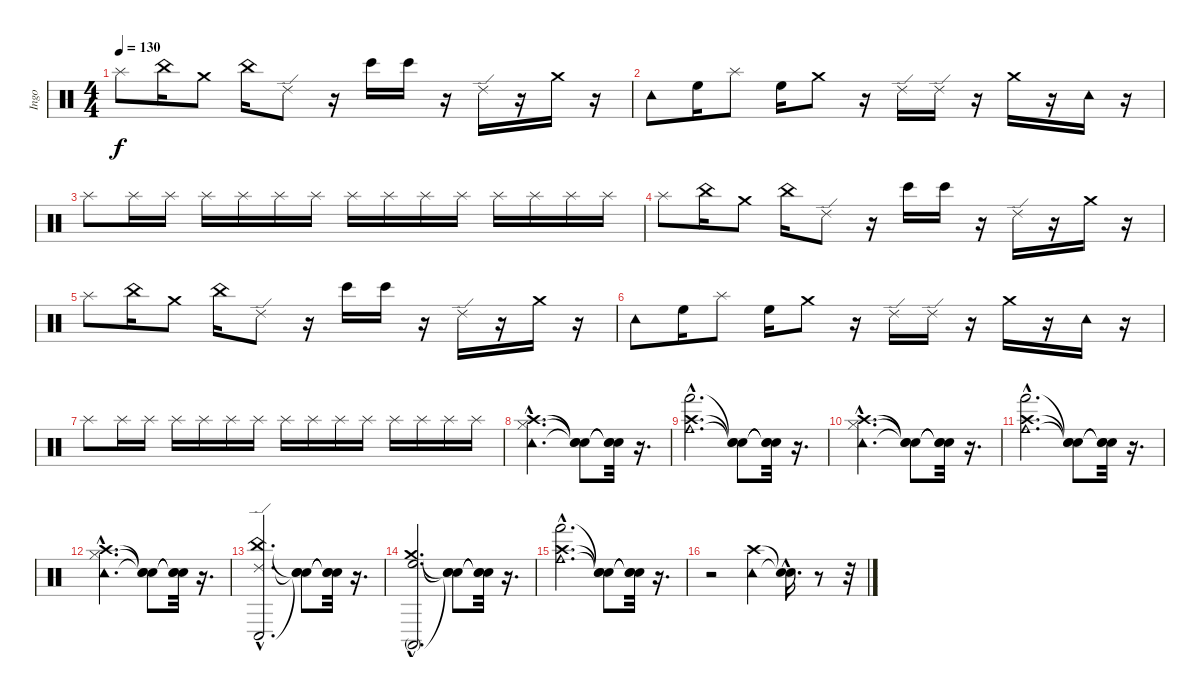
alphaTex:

\track ("Ingo" "Ingo") {instrument percussion}
\staff {score}
\articulation defaults
\ts (4 4)
\tempo 130
\clef neutral
\ks c "Splash (hit)".8{dy f} "China (hit)".16 "Crash medium (hit)".8 "China (hit)".16 "Ride (edge) 2".8
r.16 "Bongo High (hit)".16 "Bongo High (hit)".16 r.16 "Ride (edge) 2".16 r.16 "Crash medium (hit)".16 r.16 |
"Tambourine (hit)".8 "High Floor Tom (hit)".16 "Splash (hit)".8 "High Floor Tom (hit)".16 "Crash medium (hit)".8 r.16 "Ride (edge) 2".16 "Ride (edge) 2".16 r.16 "Crash medium (hit)".16 r.16 "Tambourine (hit)".16 r.16 |
"Splash (hit)".8 "Splash (hit)".16 "Splash (hit)".16 "Splash (hit)".16 "Splash (hit)".16 "Splash (hit)".16 "Splash (hit)".16 "Splash (hit)".16 "Splash (hit)".16 "Splash (hit)".16 "Splash (hit)".16 "Splash (hit)".16 "Splash (hit)".16 "Splash (hit)".16 "Splash (hit)".16 |
"Splash (hit)".8 "China (hit)".16 "Crash medium (hit)".8 "China (hit)".16 "Ride (edge) 2".8 r.16 "Bongo High (hit)".16 "Bongo High (hit)".16 r.16 "Ride (edge) 2".16 r.16 "Crash medium (hit)".16 r.16 |
"Splash (hit)".8 "China (hit)".16 "Crash medium (hit)".8 "China (hit)".16 "Ride (edge) 2".8 r.16 "Bongo High (hit)".16 "Bongo High (hit)".16 r.16 "Ride (edge) 2".16 r.16 "Crash medium (hit)".16 r.16 |
"Tambourine (hit)".8 "High Floor Tom (hit)".16 "Splash (hit)".8 "High Floor Tom (hit)".16 "Crash medium (hit)".8 r.16 "Ride (edge) 2".16 "Ride (edge) 2".16 r.16 "Crash medium (hit)".16 r.16 "Tambourine (hit)".16 r.16 |
"Splash (hit)".8 "Splash (hit)".16 "Splash (hit)".16 "Splash (hit)".16 "Splash (hit)".16 "Splash (hit)".16 "Splash (hit)".16 "Splash (hit)".16 "Splash (hit)".16 "Splash (hit)".16 "Splash (hit)".16 "Splash (hit)".16 "Splash (hit)".16 "Splash (hit)".16 "Splash (hit)".16 |
("Tambourine (hit)"{hac} "Hi-Hat (closed)"{hac} "Crash high (hit)"{hac}).2{d volume 12} ("Snare (hit)"{t} "Snare (hit)"{t} "Snare (hit)"{t}).8 ("Snare (hit)"{t} "Snare (hit)"{t} "Snare (hit)"{t}).32 r.16{d} |
("Hand (hit)"{hac} "Crash high (hit)"{hac} "Cowbell medium (hit)"{hac}).2{d} ("Snare (hit)"{t} "Snare (hit)"{t} "Snare (hit)"{t}).8 ("Snare (hit)"{t} "Snare (hit)"{t} "Snare (hit)"{t}).32 r.16{d} |
("Tambourine (hit)"{hac} "Hi-Hat (closed)"{hac} "Crash high (hit)"{hac}).2{d} ("Snare (hit)"{t} "Snare (hit)"{t} "Snare (hit)"{t}).8 ("Snare (hit)"{t} "Snare (hit)"{t} "Snare (hit)"{t}).32 r.16{d} |
("Hand (hit)"{hac} "Crash high (hit)"{hac} "Cowbell medium (hit)"{hac}).2{d} ("Snare (hit)"{t} "Snare (hit)"{t} "Snare (hit)"{t}).8 ("Snare (hit)"{t} "Snare (hit)"{t} "Snare (hit)"{t}).32 r.16{d} |
("Tambourine (hit)"{hac} "Hi-Hat (closed)"{hac} "Crash high (hit)"{hac}).2{d} ("Snare (hit)"{t} "Snare (hit)"{t} "Snare (hit)"{t}).8 ("Snare (hit)"{t} "Snare (hit)"{t} "Snare (hit)"{t}).32 r.16{d} |
("Conga low (hit)"{hac} "China (hit)"{hac} "Ride (edge) 2"{hac}).2{d} ("Snare (hit)"{t} "Snare (hit)"{t} "Snare (hit)"{t}).8 ("Snare (hit)"{t} "Snare (hit)"{t} "Snare (hit)"{t}).32 r.16{d} |
("Conga high (mute)"{hac} "High Floor Tom (hit)"{hac} "Crash medium (hit)"{hac}).2{d} ("Snare (hit)"{t} "Snare (hit)"{t} "Snare (hit)"{t}).8 ("Snare (hit)"{t} "Snare (hit)"{t} "Snare (hit)"{t}).32 r.16{d} |
("Hand (hit)"{hac} "Crash high (hit)"{hac} "Cowbell medium (hit)"{hac}).2{d} ("Snare (hit)"{t} "Snare (hit)"{t} "Snare (hit)"{t}).8 ("Snare (hit)"{t} "Snare (hit)"{t} "Snare (hit)"{t}).32 r.16{d} |
r.2 ("Crash high (hit)" "Tambourine (hit)").4 ("Snare (hit)"{hac t} "Snare (hit)"{hac t}).16{d} r.8 r.32
